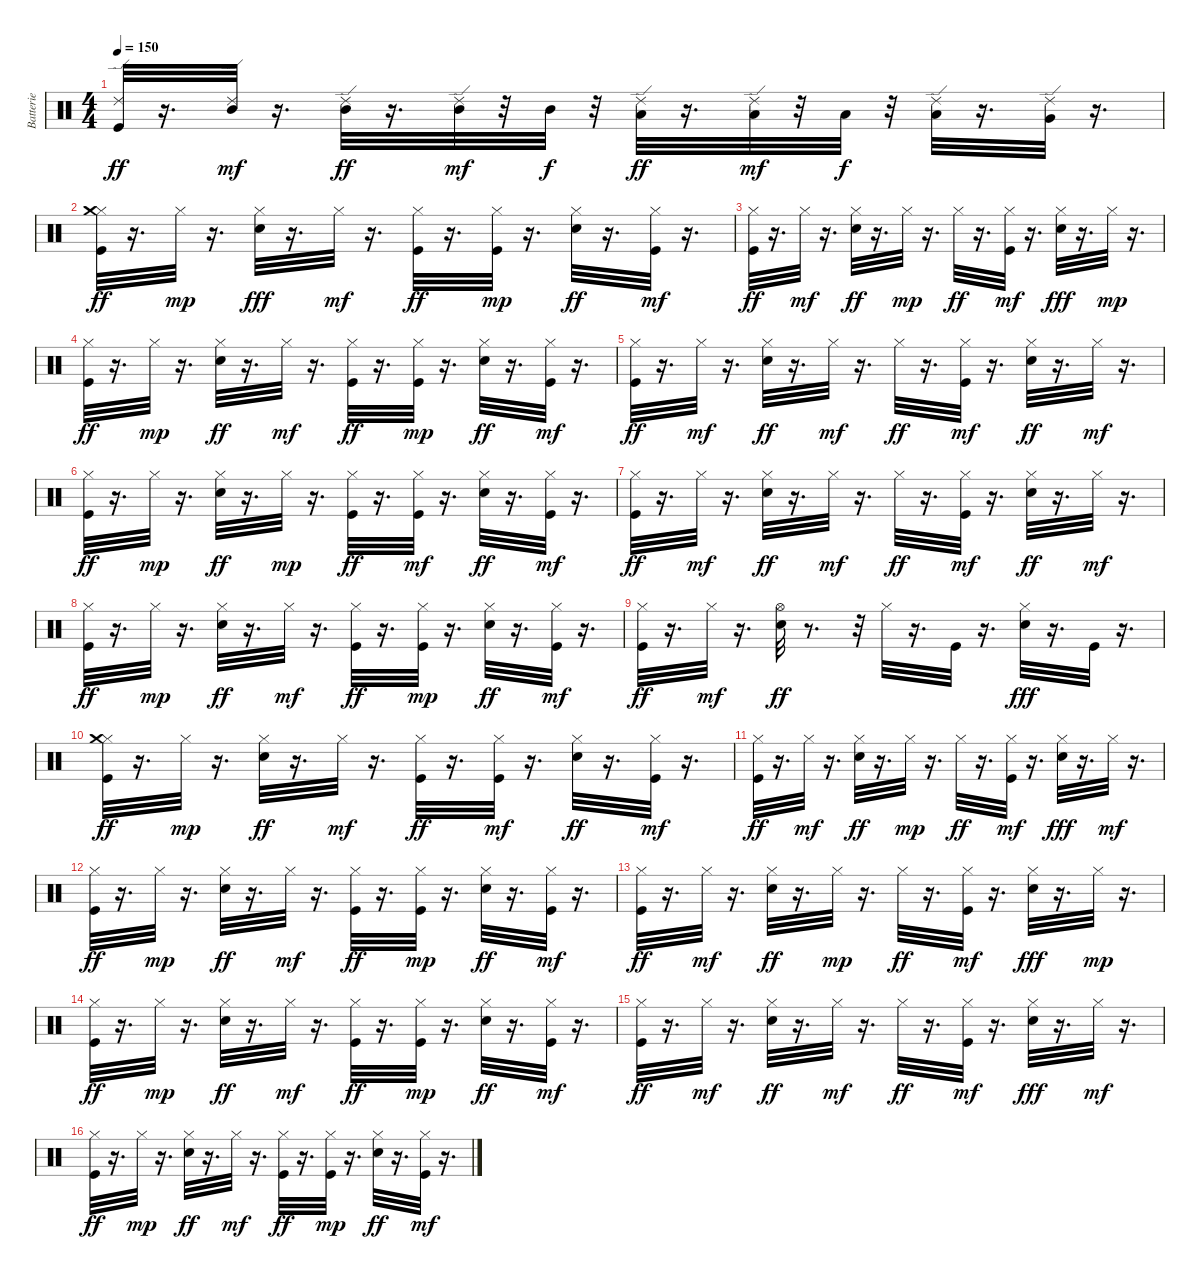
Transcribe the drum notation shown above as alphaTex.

\track ("Batterie" "Batterie") {instrument percussion}
\staff {score}
\articulation defaults
\ts (4 4)
\tempo 150
\clef neutral
\ks c
("Kick (hit)" "Ride (edge) 2").32{dy ff} r.16{d} ("Mid Tom (hit)" "Ride (edge) 2").32{dy mf} r.16{d} ("Mid Tom (hit)" "Ride (edge) 2").32{dy ff} r.16{d} ("Mid Tom (hit)" "Ride (edge) 2").32{dy mf} r.32 "Mid Tom (hit)".32{dy f} r.32 ("Low Tom (hit)" "Ride (edge) 2").32{dy ff} r.16{d} ("Low Tom (hit)" "Ride (edge) 2").32{dy mf} r.32 "Low Tom (hit)".32{dy f} r.32 ("Low Tom (hit)" "Ride (edge) 2").32 r.16{d} ("Very Low Tom (hit)" "Ride (edge) 2").32 r.16{d} |
("Kick (hit)" "Hi-Hat (closed)" "Crash medium (hit)").32{dy ff} r.16{d} "Hi-Hat (closed)".32{dy mp} r.16{d} ("Snare (hit) 2" "Hi-Hat (closed)").32{dy fff} r.16{d} "Hi-Hat (closed)".32{dy mf} r.16{d} ("Kick (hit)" "Hi-Hat (closed)").32{dy ff} r.16{d} ("Kick (hit)" "Hi-Hat (closed)").32{dy mp} r.16{d} ("Snare (hit) 2" "Hi-Hat (closed)").32{dy ff} r.16{d} ("Kick (hit)" "Hi-Hat (closed)").32{dy mf} r.16{d} |
("Kick (hit)" "Hi-Hat (closed)").32{dy ff} r.16{d} "Hi-Hat (closed)".32{dy mf} r.16{d} ("Snare (hit) 2" "Hi-Hat (closed)").32{dy ff} r.16{d} "Hi-Hat (closed)".32{dy mp} r.16{d} "Hi-Hat (closed)".32{dy ff} r.16{d} ("Kick (hit)" "Hi-Hat (closed)").32{dy mf} r.16{d} ("Snare (hit) 2" "Hi-Hat (closed)").32{dy fff} r.16{d} "Hi-Hat (closed)".32{dy mp} r.16{d} |
("Kick (hit)" "Hi-Hat (closed)").32{dy ff} r.16{d} "Hi-Hat (closed)".32{dy mp} r.16{d} ("Snare (hit) 2" "Hi-Hat (closed)").32{dy ff} r.16{d} "Hi-Hat (closed)".32{dy mf} r.16{d} ("Kick (hit)" "Hi-Hat (closed)").32{dy ff} r.16{d} ("Kick (hit)" "Hi-Hat (closed)").32{dy mp} r.16{d} ("Snare (hit) 2" "Hi-Hat (closed)").32{dy ff} r.16{d} ("Kick (hit)" "Hi-Hat (closed)").32{dy mf} r.16{d} |
("Kick (hit)" "Hi-Hat (closed)").32{dy ff} r.16{d} "Hi-Hat (closed)".32{dy mf} r.16{d} ("Snare (hit) 2" "Hi-Hat (closed)").32{dy ff} r.16{d} "Hi-Hat (closed)".32{dy mf} r.16{d} "Hi-Hat (closed)".32{dy ff} r.16{d} ("Kick (hit)" "Hi-Hat (closed)").32{dy mf} r.16{d} ("Snare (hit) 2" "Hi-Hat (closed)").32{dy ff} r.16{d} "Hi-Hat (closed)".32{dy mf} r.16{d} |
("Kick (hit)" "Hi-Hat (closed)").32{dy ff} r.16{d} "Hi-Hat (closed)".32{dy mp} r.16{d} ("Snare (hit) 2" "Hi-Hat (closed)").32{dy ff} r.16{d} "Hi-Hat (closed)".32{dy mp} r.16{d} ("Kick (hit)" "Hi-Hat (closed)").32{dy ff} r.16{d} ("Kick (hit)" "Hi-Hat (closed)").32{dy mf} r.16{d} ("Snare (hit) 2" "Hi-Hat (closed)").32{dy ff} r.16{d} ("Kick (hit)" "Hi-Hat (closed)").32{dy mf} r.16{d} |
("Kick (hit)" "Hi-Hat (closed)").32{dy ff} r.16{d} "Hi-Hat (closed)".32{dy mf} r.16{d} ("Snare (hit) 2" "Hi-Hat (closed)").32{dy ff} r.16{d} "Hi-Hat (closed)".32{dy mf} r.16{d} "Hi-Hat (closed)".32{dy ff} r.16{d} ("Kick (hit)" "Hi-Hat (closed)").32{dy mf} r.16{d} ("Snare (hit) 2" "Hi-Hat (closed)").32{dy ff} r.16{d} "Hi-Hat (closed)".32{dy mf} r.16{d} |
("Kick (hit)" "Hi-Hat (closed)").32{dy ff} r.16{d} "Hi-Hat (closed)".32{dy mp} r.16{d} ("Snare (hit) 2" "Hi-Hat (closed)").32{dy ff} r.16{d} "Hi-Hat (closed)".32{dy mf} r.16{d} ("Kick (hit)" "Hi-Hat (closed)").32{dy ff} r.16{d} ("Kick (hit)" "Hi-Hat (closed)").32{dy mp} r.16{d} ("Snare (hit) 2" "Hi-Hat (closed)").32{dy ff} r.16{d} ("Kick (hit)" "Hi-Hat (closed)").32{dy mf} r.16{d} |
("Kick (hit)" "Hi-Hat (closed)").32{dy ff} r.16{d} "Hi-Hat (closed)".32{dy mf} r.16{d} ("Snare (hit) 2" "Hi-Hat (open)").32{dy ff} r.8{d} r.32 "Hi-Hat (closed)".32 r.16{d} "Kick (hit)".32 r.16{d} ("Snare (hit) 2" "Hi-Hat (closed)").32{dy fff} r.16{d} "Kick (hit)".32 r.16{d} |
("Kick (hit)" "Hi-Hat (closed)" "Crash medium (hit)").32{dy ff} r.16{d} "Hi-Hat (closed)".32{dy mp} r.16{d} ("Snare (hit) 2" "Hi-Hat (closed)").32{dy ff} r.16{d} "Hi-Hat (closed)".32{dy mf} r.16{d} ("Kick (hit)" "Hi-Hat (closed)").32{dy ff} r.16{d} ("Kick (hit)" "Hi-Hat (closed)").32{dy mf} r.16{d} ("Snare (hit) 2" "Hi-Hat (closed)").32{dy ff} r.16{d} ("Kick (hit)" "Hi-Hat (closed)").32{dy mf} r.16{d} |
("Kick (hit)" "Hi-Hat (closed)").32{dy ff} r.16{d} "Hi-Hat (closed)".32{dy mf} r.16{d} ("Snare (hit) 2" "Hi-Hat (closed)").32{dy ff} r.16{d} "Hi-Hat (closed)".32{dy mp} r.16{d} "Hi-Hat (closed)".32{dy ff} r.16{d} ("Kick (hit)" "Hi-Hat (closed)").32{dy mf} r.16{d} ("Snare (hit) 2" "Hi-Hat (closed)").32{dy fff} r.16{d} "Hi-Hat (closed)".32{dy mf} r.16{d} |
("Kick (hit)" "Hi-Hat (closed)").32{dy ff} r.16{d} "Hi-Hat (closed)".32{dy mp} r.16{d} ("Snare (hit) 2" "Hi-Hat (closed)").32{dy ff} r.16{d} "Hi-Hat (closed)".32{dy mf} r.16{d} ("Kick (hit)" "Hi-Hat (closed)").32{dy ff} r.16{d} ("Kick (hit)" "Hi-Hat (closed)").32{dy mp} r.16{d} ("Snare (hit) 2" "Hi-Hat (closed)").32{dy ff} r.16{d} ("Kick (hit)" "Hi-Hat (closed)").32{dy mf} r.16{d} |
("Kick (hit)" "Hi-Hat (closed)").32{dy ff} r.16{d} "Hi-Hat (closed)".32{dy mf} r.16{d} ("Snare (hit) 2" "Hi-Hat (closed)").32{dy ff} r.16{d} "Hi-Hat (closed)".32{dy mp} r.16{d} "Hi-Hat (closed)".32{dy ff} r.16{d} ("Kick (hit)" "Hi-Hat (closed)").32{dy mf} r.16{d} ("Snare (hit) 2" "Hi-Hat (closed)").32{dy fff} r.16{d} "Hi-Hat (closed)".32{dy mp} r.16{d} |
("Kick (hit)" "Hi-Hat (closed)").32{dy ff} r.16{d} "Hi-Hat (closed)".32{dy mp} r.16{d} ("Snare (hit) 2" "Hi-Hat (closed)").32{dy ff} r.16{d} "Hi-Hat (closed)".32{dy mf} r.16{d} ("Kick (hit)" "Hi-Hat (closed)").32{dy ff} r.16{d} ("Kick (hit)" "Hi-Hat (closed)").32{dy mp} r.16{d} ("Snare (hit) 2" "Hi-Hat (closed)").32{dy ff} r.16{d} ("Kick (hit)" "Hi-Hat (closed)").32{dy mf} r.16{d} |
("Kick (hit)" "Hi-Hat (closed)").32{dy ff} r.16{d} "Hi-Hat (closed)".32{dy mf} r.16{d} ("Snare (hit) 2" "Hi-Hat (closed)").32{dy ff} r.16{d} "Hi-Hat (closed)".32{dy mf} r.16{d} "Hi-Hat (closed)".32{dy ff} r.16{d} ("Kick (hit)" "Hi-Hat (closed)").32{dy mf} r.16{d} ("Snare (hit) 2" "Hi-Hat (closed)").32{dy fff} r.16{d} "Hi-Hat (closed)".32{dy mf} r.16{d} |
("Kick (hit)" "Hi-Hat (closed)").32{dy ff} r.16{d} "Hi-Hat (closed)".32{dy mp} r.16{d} ("Snare (hit) 2" "Hi-Hat (closed)").32{dy ff} r.16{d} "Hi-Hat (closed)".32{dy mf} r.16{d} ("Kick (hit)" "Hi-Hat (closed)").32{dy ff} r.16{d} ("Kick (hit)" "Hi-Hat (closed)").32{dy mp} r.16{d} ("Snare (hit) 2" "Hi-Hat (closed)").32{dy ff} r.16{d} ("Kick (hit)" "Hi-Hat (closed)").32{dy mf} r.16{d}
